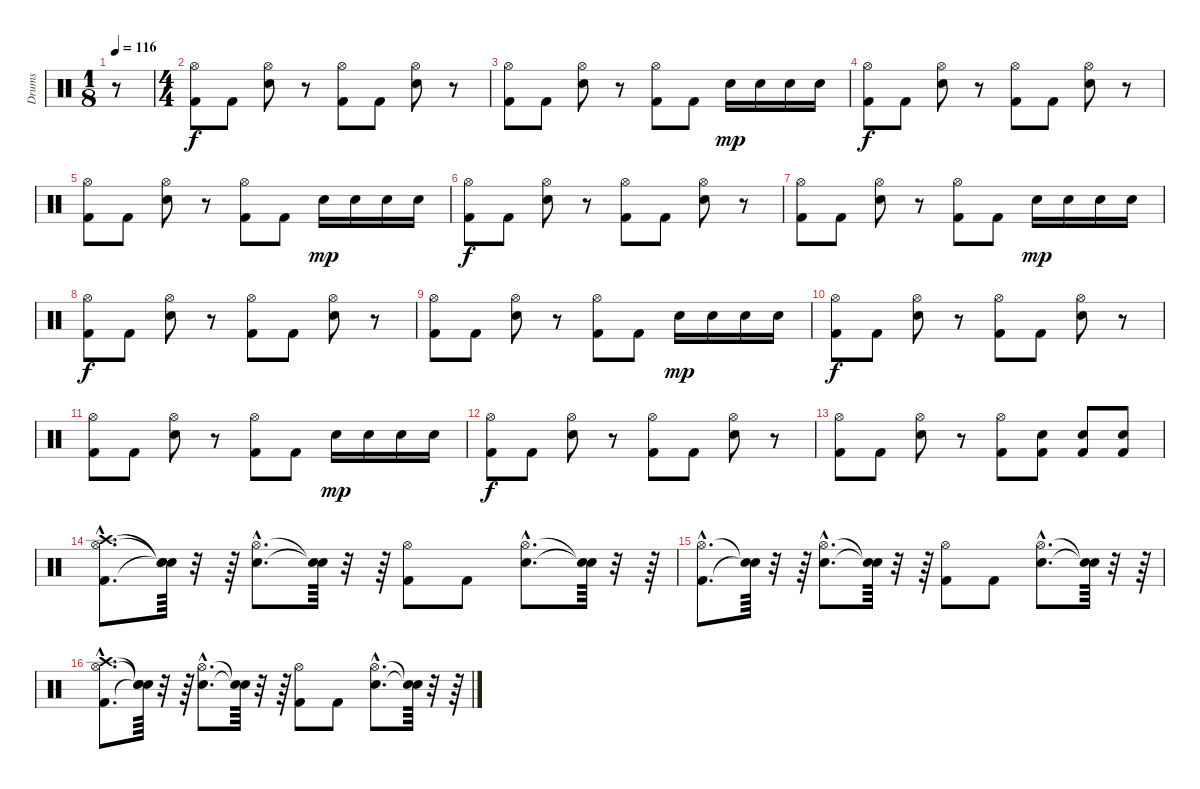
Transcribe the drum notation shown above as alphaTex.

\track ("Drums" "Drums") {instrument percussion}
\staff {score}
\articulation defaults
\ts (1 8)
\tempo 116
\clef neutral
\ks c
r.8{dy f} |
\ts (4 4)
("Kick (hit) 2" "Hi-Hat (open)").8 "Kick (hit) 2".8 ("Snare (hit) 2" "Hi-Hat (open)").8 r.8 ("Kick (hit) 2" "Hi-Hat (open)").8 "Kick (hit) 2".8 ("Snare (hit) 2" "Hi-Hat (open)").8 r.8 |
("Kick (hit) 2" "Hi-Hat (open)").8 "Kick (hit) 2".8 ("Snare (hit) 2" "Hi-Hat (open)").8 r.8 ("Kick (hit) 2" "Hi-Hat (open)").8 "Kick (hit) 2".8 "Snare (hit) 2".16{dy mp} "Snare (hit) 2".16 "Snare (hit) 2".16 "Snare (hit) 2".16 |
("Kick (hit) 2" "Hi-Hat (open)").8{dy f} "Kick (hit) 2".8 ("Snare (hit) 2" "Hi-Hat (open)").8 r.8 ("Kick (hit) 2" "Hi-Hat (open)").8 "Kick (hit) 2".8 ("Snare (hit) 2" "Hi-Hat (open)").8 r.8 |
("Kick (hit) 2" "Hi-Hat (open)").8 "Kick (hit) 2".8 ("Snare (hit) 2" "Hi-Hat (open)").8 r.8 ("Kick (hit) 2" "Hi-Hat (open)").8 "Kick (hit) 2".8 "Snare (hit) 2".16{dy mp} "Snare (hit) 2".16 "Snare (hit) 2".16 "Snare (hit) 2".16 |
("Kick (hit) 2" "Hi-Hat (open)").8{dy f} "Kick (hit) 2".8 ("Snare (hit) 2" "Hi-Hat (open)").8 r.8 ("Kick (hit) 2" "Hi-Hat (open)").8 "Kick (hit) 2".8 ("Snare (hit) 2" "Hi-Hat (open)").8 r.8 |
("Kick (hit) 2" "Hi-Hat (open)").8 "Kick (hit) 2".8 ("Snare (hit) 2" "Hi-Hat (open)").8 r.8 ("Kick (hit) 2" "Hi-Hat (open)").8 "Kick (hit) 2".8 "Snare (hit) 2".16{dy mp} "Snare (hit) 2".16 "Snare (hit) 2".16 "Snare (hit) 2".16 |
("Kick (hit) 2" "Hi-Hat (open)").8{dy f} "Kick (hit) 2".8 ("Snare (hit) 2" "Hi-Hat (open)").8 r.8 ("Kick (hit) 2" "Hi-Hat (open)").8 "Kick (hit) 2".8 ("Snare (hit) 2" "Hi-Hat (open)").8 r.8 |
("Kick (hit) 2" "Hi-Hat (open)").8 "Kick (hit) 2".8 ("Snare (hit) 2" "Hi-Hat (open)").8 r.8 ("Kick (hit) 2" "Hi-Hat (open)").8 "Kick (hit) 2".8 "Snare (hit) 2".16{dy mp} "Snare (hit) 2".16 "Snare (hit) 2".16 "Snare (hit) 2".16 |
("Kick (hit) 2" "Hi-Hat (open)").8{dy f} "Kick (hit) 2".8 ("Snare (hit) 2" "Hi-Hat (open)").8 r.8 ("Kick (hit) 2" "Hi-Hat (open)").8 "Kick (hit) 2".8 ("Snare (hit) 2" "Hi-Hat (open)").8 r.8 |
("Kick (hit) 2" "Hi-Hat (open)").8 "Kick (hit) 2".8 ("Snare (hit) 2" "Hi-Hat (open)").8 r.8 ("Kick (hit) 2" "Hi-Hat (open)").8 "Kick (hit) 2".8 "Snare (hit) 2".16{dy mp} "Snare (hit) 2".16 "Snare (hit) 2".16 "Snare (hit) 2".16 |
("Kick (hit) 2" "Hi-Hat (open)").8{dy f} "Kick (hit) 2".8 ("Snare (hit) 2" "Hi-Hat (open)").8 r.8 ("Kick (hit) 2" "Hi-Hat (open)").8 "Kick (hit) 2".8 ("Snare (hit) 2" "Hi-Hat (open)").8 r.8 |
("Kick (hit) 2" "Hi-Hat (open)").8 "Kick (hit) 2".8 ("Snare (hit) 2" "Hi-Hat (open)").8 r.8 ("Kick (hit) 2" "Hi-Hat (open)").8 ("Kick (hit) 2" "Snare (hit) 2").8 ("Kick (hit) 2" "Snare (hit) 2").8 ("Kick (hit) 2" "Snare (hit) 2").8 |
("Kick (hit) 2"{hac} "Hi-Hat (open)"{hac} "Crash high (hit)"{hac}).8{d} ("Snare (hit)"{t} "Snare (hit)"{t} "Snare (hit)"{t}).64 r.32 r.64 ("Snare (hit) 2"{hac} "Hi-Hat (open)"{hac}).8{d} ("Snare (hit)"{t} "Snare (hit)"{t}).64 r.32 r.64 ("Kick (hit) 2" "Hi-Hat (open)").8 "Kick (hit) 2".8 ("Snare (hit) 2"{hac} "Hi-Hat (open)"{hac}).8{d} ("Snare (hit)"{t} "Snare (hit)"{t}).64 r.32 r.64 |
("Kick (hit) 2"{hac} "Hi-Hat (open)"{hac}).8{d} ("Snare (hit)"{t} "Snare (hit)"{t}).64 r.32 r.64 ("Snare (hit) 2"{hac} "Hi-Hat (open)"{hac}).8{d} ("Snare (hit)"{t} "Snare (hit)"{t}).64 r.32 r.64 ("Kick (hit) 2" "Hi-Hat (open)").8 "Kick (hit) 2".8 ("Snare (hit) 2"{hac} "Hi-Hat (open)"{hac}).8{d} ("Snare (hit)"{t} "Snare (hit)"{t}).64 r.32 r.64 |
("Kick (hit) 2"{hac} "Hi-Hat (open)"{hac} "Crash high (hit)"{hac}).8{d} ("Snare (hit)"{t} "Snare (hit)"{t} "Snare (hit)"{t}).64 r.32 r.64 ("Snare (hit) 2"{hac} "Hi-Hat (open)"{hac}).8{d} ("Snare (hit)"{t} "Snare (hit)"{t}).64 r.32 r.64 ("Kick (hit) 2" "Hi-Hat (open)").8 "Kick (hit) 2".8 ("Snare (hit) 2"{hac} "Hi-Hat (open)"{hac}).8{d} ("Snare (hit)"{t} "Snare (hit)"{t}).64 r.32 r.64
